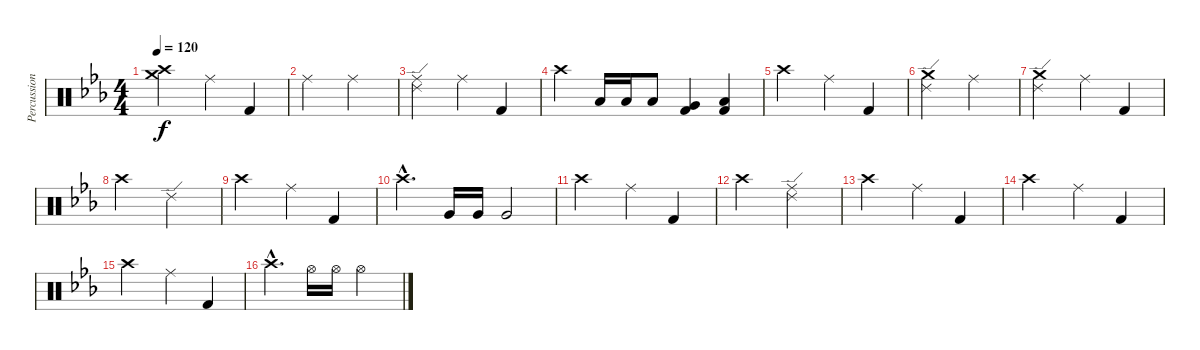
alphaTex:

\track ("Percussion" "Percussion") {instrument percussion}
\staff {score}
\articulation defaults
\ts (4 4)
\tempo 120
\clef neutral
\ks eb
("Crash high (hit)" "Crash medium (hit)").2{dy f} "Ride (middle)".4 "Kick (hit) 2".4 |
"Ride (middle)".2 "Ride (middle)".2 |
("Ride (edge) 2" "Ride (middle)").2 "Ride (middle)".4 "Kick (hit) 2".4 |
"Crash high (hit)".4 "Low Floor Tom (hit)".16 "Low Floor Tom (hit)".16 "Low Floor Tom (hit)".8 ("Very Low Tom (hit)" "Kick (hit) 2").4 ("Low Floor Tom (hit)" "Kick (hit) 2").4 |
"Crash high (hit)".2 "Ride (middle)".4 "Kick (hit) 2".4 |
("Ride (edge) 2" "Crash medium (hit)").2 "Ride (middle)".2 |
("Ride (edge) 2" "Crash medium (hit)").2 "Ride (middle)".4 "Kick (hit) 2".4 |
"Crash high (hit)".2 "Ride (edge) 2".2 |
"Crash high (hit)".2 "Ride (middle)".4 "Kick (hit) 2".4 |
"Crash high (hit)"{hac}.4{d} "Very Low Tom (hit)".16 "Very Low Tom (hit)".16 "Very Low Tom (hit)".2 |
"Crash high (hit)".2 "Ride (middle)".4 "Kick (hit) 2".4 |
"Crash high (hit)".2 ("Ride (middle)" "Ride (edge) 2").2 |
"Crash high (hit)".2 "Ride (middle)".4 "Kick (hit) 2".4 |
"Crash high (hit)".2 "Ride (middle)".4 "Kick (hit) 2".4 |
"Crash high (hit)".2 "Ride (middle)".4 "Kick (hit) 2".4 |
"Crash high (hit)"{hac}.4{d} "Hi-Hat (open)".16 "Hi-Hat (open)".16 "Hi-Hat (open)".2
